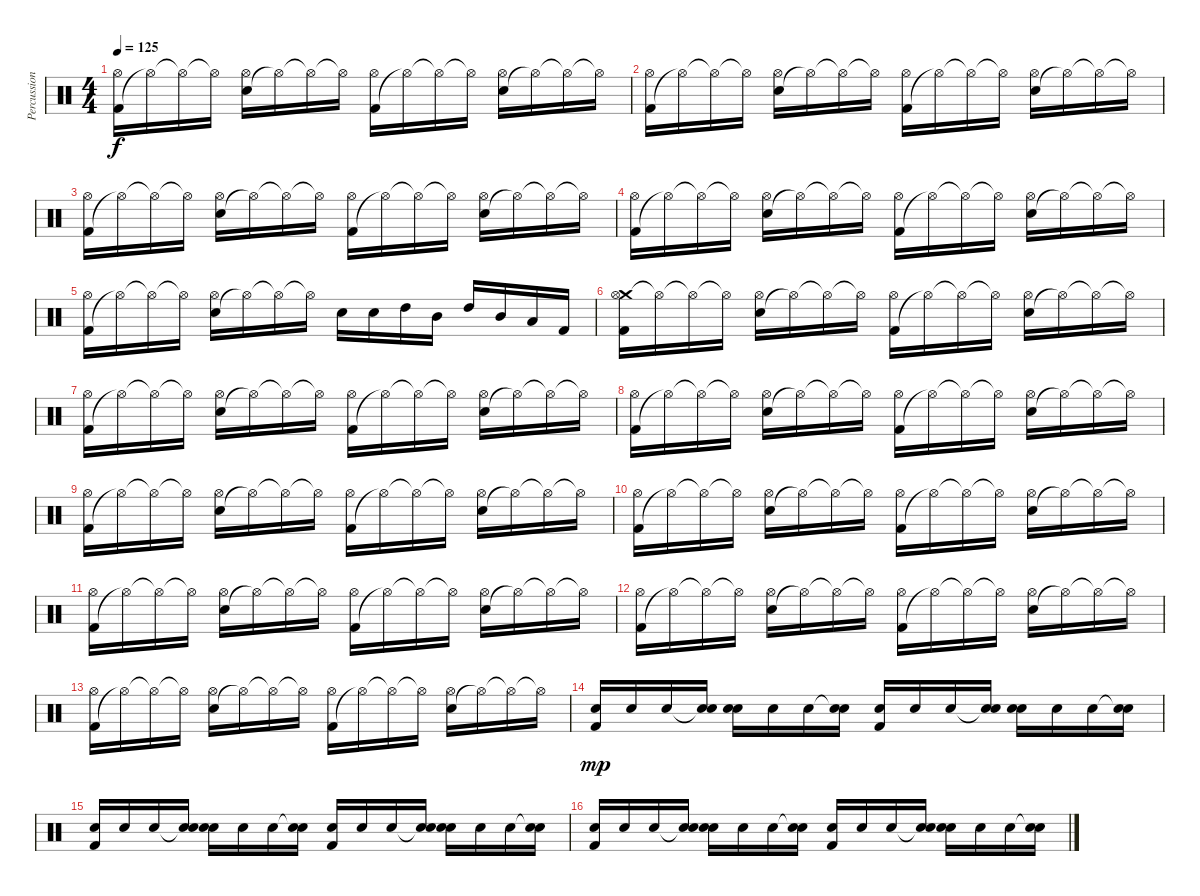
\track ("Percussions" "Percussion") {instrument percussion}
\staff {score}
\articulation defaults
\ts (4 4)
\tempo 125
\clef neutral
\ks c
("Kick (hit) 2" "Hi-Hat (open)").16{dy f} "Hi-Hat (open)"{t}.16 "Hi-Hat (open)"{t}.16 "Hi-Hat (open)"{t}.16 ("Electric Snare (hit)" "Hi-Hat (open)").16 "Hi-Hat (open)"{t}.16 "Hi-Hat (open)"{t}.16 "Hi-Hat (open)"{t}.16 ("Kick (hit) 2" "Hi-Hat (open)").16 "Hi-Hat (open)"{t}.16 "Hi-Hat (open)"{t}.16 "Hi-Hat (open)"{t}.16 ("Electric Snare (hit)" "Hi-Hat (open)").16 "Hi-Hat (open)"{t}.16 "Hi-Hat (open)"{t}.16 "Hi-Hat (open)"{t}.16 |
("Kick (hit) 2" "Hi-Hat (open)").16 "Hi-Hat (open)"{t}.16 "Hi-Hat (open)"{t}.16 "Hi-Hat (open)"{t}.16 ("Electric Snare (hit)" "Hi-Hat (open)").16 "Hi-Hat (open)"{t}.16 "Hi-Hat (open)"{t}.16 "Hi-Hat (open)"{t}.16 ("Kick (hit) 2" "Hi-Hat (open)").16 "Hi-Hat (open)"{t}.16 "Hi-Hat (open)"{t}.16 "Hi-Hat (open)"{t}.16 ("Electric Snare (hit)" "Hi-Hat (open)").16 "Hi-Hat (open)"{t}.16 "Hi-Hat (open)"{t}.16 "Hi-Hat (open)"{t}.16 |
("Kick (hit) 2" "Hi-Hat (open)").16 "Hi-Hat (open)"{t}.16 "Hi-Hat (open)"{t}.16 "Hi-Hat (open)"{t}.16 ("Electric Snare (hit)" "Hi-Hat (open)").16 "Hi-Hat (open)"{t}.16 "Hi-Hat (open)"{t}.16 "Hi-Hat (open)"{t}.16 ("Kick (hit) 2" "Hi-Hat (open)").16 "Hi-Hat (open)"{t}.16 "Hi-Hat (open)"{t}.16 "Hi-Hat (open)"{t}.16 ("Electric Snare (hit)" "Hi-Hat (open)").16 "Hi-Hat (open)"{t}.16 "Hi-Hat (open)"{t}.16 "Hi-Hat (open)"{t}.16 |
("Kick (hit) 2" "Hi-Hat (open)").16 "Hi-Hat (open)"{t}.16 "Hi-Hat (open)"{t}.16 "Hi-Hat (open)"{t}.16 ("Electric Snare (hit)" "Hi-Hat (open)").16 "Hi-Hat (open)"{t}.16 "Hi-Hat (open)"{t}.16 "Hi-Hat (open)"{t}.16 ("Kick (hit) 2" "Hi-Hat (open)").16 "Hi-Hat (open)"{t}.16 "Hi-Hat (open)"{t}.16 "Hi-Hat (open)"{t}.16 ("Electric Snare (hit)" "Hi-Hat (open)").16 "Hi-Hat (open)"{t}.16 "Hi-Hat (open)"{t}.16 "Hi-Hat (open)"{t}.16 |
("Kick (hit) 2" "Hi-Hat (open)").16 "Hi-Hat (open)"{t}.16 "Hi-Hat (open)"{t}.16 "Hi-Hat (open)"{t}.16 ("Electric Snare (hit)" "Hi-Hat (open)").16 "Hi-Hat (open)"{t}.16 "Hi-Hat (open)"{t}.16 "Hi-Hat (open)"{t}.16 "Electric Snare (hit)".16 "Electric Snare (hit)".16 "High Tom (hit)".16 "Mid Tom (hit)".16 "High Tom (hit)".16 "Mid Tom (hit)".16 "Low Tom (hit)".16 "Kick (hit) 2".16 |
("Crash medium (hit)" "Kick (hit) 2" "Hi-Hat (open)").16 "Hi-Hat (open)"{t}.16 "Hi-Hat (open)"{t}.16 "Hi-Hat (open)"{t}.16 ("Electric Snare (hit)" "Hi-Hat (open)").16 "Hi-Hat (open)"{t}.16 "Hi-Hat (open)"{t}.16 "Hi-Hat (open)"{t}.16 ("Kick (hit) 2" "Hi-Hat (open)").16 "Hi-Hat (open)"{t}.16 "Hi-Hat (open)"{t}.16 "Hi-Hat (open)"{t}.16 ("Electric Snare (hit)" "Hi-Hat (open)").16 "Hi-Hat (open)"{t}.16 "Hi-Hat (open)"{t}.16 "Hi-Hat (open)"{t}.16 |
("Kick (hit) 2" "Hi-Hat (open)").16 "Hi-Hat (open)"{t}.16 "Hi-Hat (open)"{t}.16 "Hi-Hat (open)"{t}.16 ("Electric Snare (hit)" "Hi-Hat (open)").16 "Hi-Hat (open)"{t}.16 "Hi-Hat (open)"{t}.16 "Hi-Hat (open)"{t}.16 ("Kick (hit) 2" "Hi-Hat (open)").16 "Hi-Hat (open)"{t}.16 "Hi-Hat (open)"{t}.16 "Hi-Hat (open)"{t}.16 ("Electric Snare (hit)" "Hi-Hat (open)").16 "Hi-Hat (open)"{t}.16 "Hi-Hat (open)"{t}.16 "Hi-Hat (open)"{t}.16 |
("Kick (hit) 2" "Hi-Hat (open)").16 "Hi-Hat (open)"{t}.16 "Hi-Hat (open)"{t}.16 "Hi-Hat (open)"{t}.16 ("Electric Snare (hit)" "Hi-Hat (open)").16 "Hi-Hat (open)"{t}.16 "Hi-Hat (open)"{t}.16 "Hi-Hat (open)"{t}.16 ("Kick (hit) 2" "Hi-Hat (open)").16 "Hi-Hat (open)"{t}.16 "Hi-Hat (open)"{t}.16 "Hi-Hat (open)"{t}.16 ("Electric Snare (hit)" "Hi-Hat (open)").16 "Hi-Hat (open)"{t}.16 "Hi-Hat (open)"{t}.16 "Hi-Hat (open)"{t}.16 |
("Kick (hit) 2" "Hi-Hat (open)").16 "Hi-Hat (open)"{t}.16 "Hi-Hat (open)"{t}.16 "Hi-Hat (open)"{t}.16 ("Electric Snare (hit)" "Hi-Hat (open)").16 "Hi-Hat (open)"{t}.16 "Hi-Hat (open)"{t}.16 "Hi-Hat (open)"{t}.16 ("Kick (hit) 2" "Hi-Hat (open)").16 "Hi-Hat (open)"{t}.16 "Hi-Hat (open)"{t}.16 "Hi-Hat (open)"{t}.16 ("Electric Snare (hit)" "Hi-Hat (open)").16 "Hi-Hat (open)"{t}.16 "Hi-Hat (open)"{t}.16 "Hi-Hat (open)"{t}.16 |
("Kick (hit) 2" "Hi-Hat (open)").16 "Hi-Hat (open)"{t}.16 "Hi-Hat (open)"{t}.16 "Hi-Hat (open)"{t}.16 ("Electric Snare (hit)" "Hi-Hat (open)").16 "Hi-Hat (open)"{t}.16 "Hi-Hat (open)"{t}.16 "Hi-Hat (open)"{t}.16 ("Kick (hit) 2" "Hi-Hat (open)").16 "Hi-Hat (open)"{t}.16 "Hi-Hat (open)"{t}.16 "Hi-Hat (open)"{t}.16 ("Electric Snare (hit)" "Hi-Hat (open)").16 "Hi-Hat (open)"{t}.16 "Hi-Hat (open)"{t}.16 "Hi-Hat (open)"{t}.16 |
("Kick (hit) 2" "Hi-Hat (open)").16 "Hi-Hat (open)"{t}.16 "Hi-Hat (open)"{t}.16 "Hi-Hat (open)"{t}.16 ("Electric Snare (hit)" "Hi-Hat (open)").16 "Hi-Hat (open)"{t}.16 "Hi-Hat (open)"{t}.16 "Hi-Hat (open)"{t}.16 ("Kick (hit) 2" "Hi-Hat (open)").16 "Hi-Hat (open)"{t}.16 "Hi-Hat (open)"{t}.16 "Hi-Hat (open)"{t}.16 ("Electric Snare (hit)" "Hi-Hat (open)").16 "Hi-Hat (open)"{t}.16 "Hi-Hat (open)"{t}.16 "Hi-Hat (open)"{t}.16 |
("Kick (hit) 2" "Hi-Hat (open)").16 "Hi-Hat (open)"{t}.16 "Hi-Hat (open)"{t}.16 "Hi-Hat (open)"{t}.16 ("Electric Snare (hit)" "Hi-Hat (open)").16 "Hi-Hat (open)"{t}.16 "Hi-Hat (open)"{t}.16 "Hi-Hat (open)"{t}.16 ("Kick (hit) 2" "Hi-Hat (open)").16 "Hi-Hat (open)"{t}.16 "Hi-Hat (open)"{t}.16 "Hi-Hat (open)"{t}.16 ("Electric Snare (hit)" "Hi-Hat (open)").16 "Hi-Hat (open)"{t}.16 "Hi-Hat (open)"{t}.16 "Hi-Hat (open)"{t}.16 |
("Kick (hit) 2" "Hi-Hat (open)").16 "Hi-Hat (open)"{t}.16 "Hi-Hat (open)"{t}.16 "Hi-Hat (open)"{t}.16 ("Electric Snare (hit)" "Hi-Hat (open)").16 "Hi-Hat (open)"{t}.16 "Hi-Hat (open)"{t}.16 "Hi-Hat (open)"{t}.16 ("Kick (hit) 2" "Hi-Hat (open)").16 "Hi-Hat (open)"{t}.16 "Hi-Hat (open)"{t}.16 "Hi-Hat (open)"{t}.16 ("Electric Snare (hit)" "Hi-Hat (open)").16 "Hi-Hat (open)"{t}.16 "Hi-Hat (open)"{t}.16 "Hi-Hat (open)"{t}.16 |
("Kick (hit) 2" "Electric Snare (hit)").16{dy mp} "Electric Snare (hit)".16 "Electric Snare (hit)".16 ("Snare (hit)"{t} "Electric Snare (hit)").16 ("Electric Snare (hit)" "Electric Snare (hit)").16 "Electric Snare (hit)".16 "Electric Snare (hit)".16 ("Snare (hit)"{t} "Electric Snare (hit)").16 ("Kick (hit) 2" "Electric Snare (hit)").16 "Electric Snare (hit)".16 "Electric Snare (hit)".16 ("Snare (hit)"{t} "Electric Snare (hit)").16 ("Electric Snare (hit)" "Electric Snare (hit)").16 "Electric Snare (hit)".16 "Electric Snare (hit)".16 ("Snare (hit)"{t} "Electric Snare (hit)").16 |
("Kick (hit) 2" "Electric Snare (hit)").16 "Electric Snare (hit)".16 "Electric Snare (hit)".16 ("Snare (hit)"{t} "Electric Snare (hit)").16 ("Electric Snare (hit)" "Electric Snare (hit)").16 "Electric Snare (hit)".16 "Electric Snare (hit)".16 ("Snare (hit)"{t} "Electric Snare (hit)").16 ("Kick (hit) 2" "Electric Snare (hit)").16 "Electric Snare (hit)".16 "Electric Snare (hit)".16 ("Snare (hit)"{t} "Electric Snare (hit)").16 ("Electric Snare (hit)" "Electric Snare (hit)").16 "Electric Snare (hit)".16 "Electric Snare (hit)".16 ("Snare (hit)"{t} "Electric Snare (hit)").16 |
("Kick (hit) 2" "Electric Snare (hit)").16 "Electric Snare (hit)".16 "Electric Snare (hit)".16 ("Snare (hit)"{t} "Electric Snare (hit)").16 ("Electric Snare (hit)" "Electric Snare (hit)").16 "Electric Snare (hit)".16 "Electric Snare (hit)".16 ("Snare (hit)"{t} "Electric Snare (hit)").16 ("Kick (hit) 2" "Electric Snare (hit)").16 "Electric Snare (hit)".16 "Electric Snare (hit)".16 ("Snare (hit)"{t} "Electric Snare (hit)").16 ("Electric Snare (hit)" "Electric Snare (hit)").16 "Electric Snare (hit)".16 "Electric Snare (hit)".16 ("Snare (hit)"{t} "Electric Snare (hit)").16
